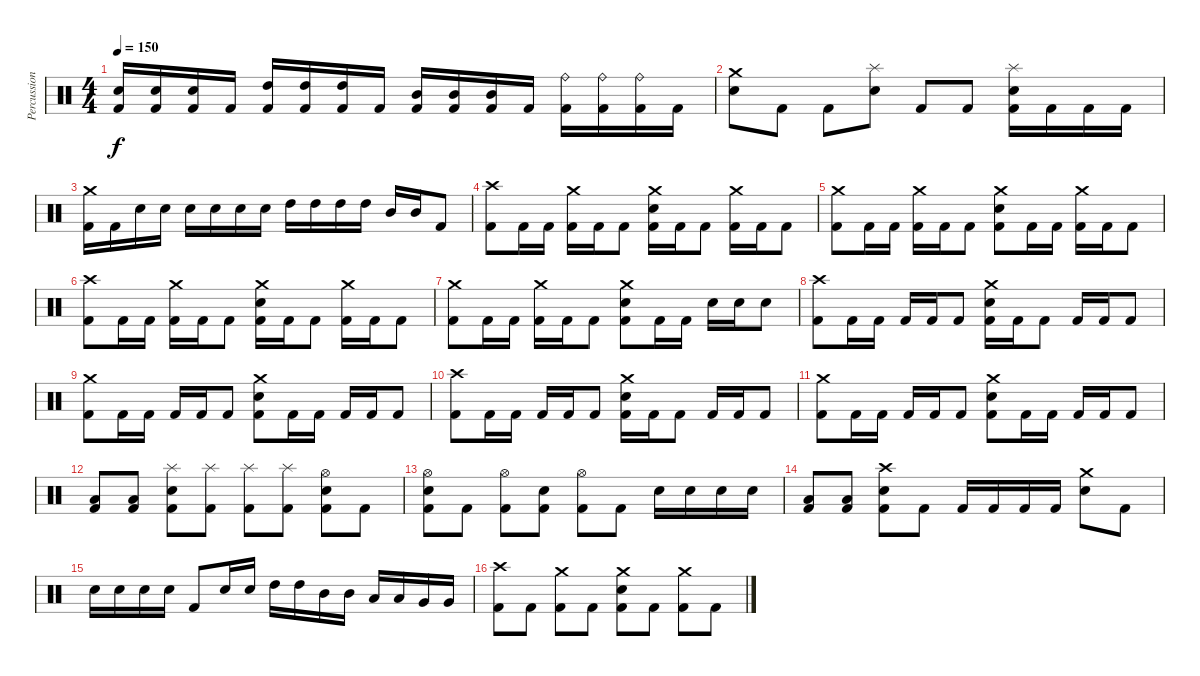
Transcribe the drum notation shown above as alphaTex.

\track ("Percussion" "Percussion") {instrument percussion}
\staff {score}
\articulation defaults
\ts (4 4)
\tempo 150
\clef neutral
\ks c
("Electric Snare (hit)" "Kick (hit) 2").16{dy f} ("Electric Snare (hit)" "Kick (hit) 2").16 ("Electric Snare (hit)" "Kick (hit) 2").16 "Kick (hit) 2".16 ("High Tom (hit)" "Kick (hit) 2").16 ("High Tom (hit)" "Kick (hit) 2").16 ("High Tom (hit)" "Kick (hit) 2").16 "Kick (hit) 2".16 ("Mid Tom (hit)" "Kick (hit) 2").16 ("Mid Tom (hit)" "Kick (hit) 2").16 ("Mid Tom (hit)" "Kick (hit) 2").16 "Kick (hit) 2".16 ("Ride (bell)" "Kick (hit) 2").16 ("Ride (bell)" "Kick (hit) 2").16 ("Ride (bell)" "Kick (hit) 2").16 "Kick (hit) 2".16 |
("Crash medium (hit)" "Electric Snare (hit)").8 "Kick (hit) 2".8 "Kick (hit) 2".8 ("Splash (hit)" "Electric Snare (hit)").8 "Kick (hit) 2".8 "Kick (hit) 2".8 ("Splash (hit)" "Electric Snare (hit)" "Kick (hit) 2").16 "Kick (hit) 2".16 "Kick (hit) 2".16 "Kick (hit) 2".16 |
("Crash medium (hit)" "Kick (hit) 2").16 "Kick (hit) 2".16 "Electric Snare (hit)".16 "Electric Snare (hit)".16 "Electric Snare (hit)".16 "Electric Snare (hit)".16 "Electric Snare (hit)".16 "Electric Snare (hit)".16 "High Tom (hit)".16 "High Tom (hit)".16 "High Tom (hit)".16 "High Tom (hit)".16 "Mid Tom (hit)".16 "Mid Tom (hit)".16 "Kick (hit) 2".8 |
("Crash high (hit)" "Kick (hit) 2").8 "Kick (hit) 2".16 "Kick (hit) 2".16 ("Crash medium (hit)" "Kick (hit) 2").16 "Kick (hit) 2".16 "Kick (hit) 2".8 ("Crash medium (hit)" "Electric Snare (hit)" "Kick (hit) 2").16 "Kick (hit) 2".16 "Kick (hit) 2".8 ("Crash medium (hit)" "Kick (hit) 2").16 "Kick (hit) 2".16 "Kick (hit) 2".8 |
("Crash medium (hit)" "Kick (hit) 2").8 "Kick (hit) 2".16 "Kick (hit) 2".16 ("Crash medium (hit)" "Kick (hit) 2").16 "Kick (hit) 2".16 "Kick (hit) 2".8 ("Crash medium (hit)" "Electric Snare (hit)" "Kick (hit) 2").8 "Kick (hit) 2".16 "Kick (hit) 2".16 ("Crash medium (hit)" "Kick (hit) 2").16 "Kick (hit) 2".16 "Kick (hit) 2".8 |
("Crash high (hit)" "Kick (hit) 2").8 "Kick (hit) 2".16 "Kick (hit) 2".16 ("Crash medium (hit)" "Kick (hit) 2").16 "Kick (hit) 2".16 "Kick (hit) 2".8 ("Crash medium (hit)" "Electric Snare (hit)" "Kick (hit) 2").16 "Kick (hit) 2".16 "Kick (hit) 2".8 ("Crash medium (hit)" "Kick (hit) 2").16 "Kick (hit) 2".16 "Kick (hit) 2".8 |
("Crash medium (hit)" "Kick (hit) 2").8 "Kick (hit) 2".16 "Kick (hit) 2".16 ("Crash medium (hit)" "Kick (hit) 2").16 "Kick (hit) 2".16 "Kick (hit) 2".8 ("Crash medium (hit)" "Electric Snare (hit)" "Kick (hit) 2").8 "Kick (hit) 2".16 "Kick (hit) 2".16 "Electric Snare (hit)".16 "Electric Snare (hit)".16 "Electric Snare (hit)".8 |
("Crash high (hit)" "Kick (hit) 2").8 "Kick (hit) 2".16 "Kick (hit) 2".16 "Kick (hit) 2".16 "Kick (hit) 2".16 "Kick (hit) 2".8 ("Crash medium (hit)" "Electric Snare (hit)" "Kick (hit) 2").16 "Kick (hit) 2".16 "Kick (hit) 2".8 "Kick (hit) 2".16 "Kick (hit) 2".16 "Kick (hit) 2".8 |
("Crash medium (hit)" "Kick (hit) 2").8 "Kick (hit) 2".16 "Kick (hit) 2".16 "Kick (hit) 2".16 "Kick (hit) 2".16 "Kick (hit) 2".8 ("Crash medium (hit)" "Electric Snare (hit)" "Kick (hit) 2").8 "Kick (hit) 2".16 "Kick (hit) 2".16 "Kick (hit) 2".16 "Kick (hit) 2".16 "Kick (hit) 2".8 |
("Crash high (hit)" "Kick (hit) 2").8 "Kick (hit) 2".16 "Kick (hit) 2".16 "Kick (hit) 2".16 "Kick (hit) 2".16 "Kick (hit) 2".8 ("Crash medium (hit)" "Electric Snare (hit)" "Kick (hit) 2").16 "Kick (hit) 2".16 "Kick (hit) 2".8 "Kick (hit) 2".16 "Kick (hit) 2".16 "Kick (hit) 2".8 |
("Crash medium (hit)" "Kick (hit) 2").8 "Kick (hit) 2".16 "Kick (hit) 2".16 "Kick (hit) 2".16 "Kick (hit) 2".16 "Kick (hit) 2".8 ("Crash medium (hit)" "Electric Snare (hit)" "Kick (hit) 2").8 "Kick (hit) 2".16 "Kick (hit) 2".16 "Kick (hit) 2".16 "Kick (hit) 2".16 "Kick (hit) 2".8 |
("Low Floor Tom (hit)" "Kick (hit) 2").8 ("Low Floor Tom (hit)" "Kick (hit) 2").8 ("Splash (hit)" "Electric Snare (hit)" "Kick (hit) 2").8 ("Splash (hit)" "Kick (hit) 2").8 ("Splash (hit)" "Kick (hit) 2").8 ("Splash (hit)" "Kick (hit) 2").8 ("Hi-Hat (open)" "Electric Snare (hit)" "Kick (hit) 2").8 "Kick (hit) 2".8 |
("Hi-Hat (open)" "Electric Snare (hit)" "Kick (hit) 2").8 "Kick (hit) 2".8 ("Hi-Hat (open)" "Kick (hit) 2").8 ("Electric Snare (hit)" "Kick (hit) 2").8 ("Hi-Hat (open)" "Kick (hit) 2").8 "Kick (hit) 2".8 "Electric Snare (hit)".16 "Electric Snare (hit)".16 "Electric Snare (hit)".16 "Electric Snare (hit)".16 |
("Low Tom (hit)" "Kick (hit) 2").8 ("Low Tom (hit)" "Kick (hit) 2").8 ("Crash high (hit)" "Electric Snare (hit)" "Kick (hit) 2").8 "Kick (hit) 2".8 "Kick (hit) 2".16 "Kick (hit) 2".16 "Kick (hit) 2".16 "Kick (hit) 2".16 ("Crash medium (hit)" "Electric Snare (hit)").8 "Kick (hit) 2".8 |
"Electric Snare (hit)".16 "Electric Snare (hit)".16 "Electric Snare (hit)".16 "Electric Snare (hit)".16 "Kick (hit) 2".8 "Electric Snare (hit)".16 "Electric Snare (hit)".16 "High Tom (hit)".16 "High Tom (hit)".16 "Mid Tom (hit)".16 "Mid Tom (hit)".16 "Low Tom (hit)".16 "Low Tom (hit)".16 "Very Low Tom (hit)".16 "Very Low Tom (hit)".16 |
("Crash high (hit)" "Kick (hit) 2").8 "Kick (hit) 2".8 ("Crash medium (hit)" "Kick (hit) 2").8 "Kick (hit) 2".8 ("Crash medium (hit)" "Electric Snare (hit)" "Kick (hit) 2").8 "Kick (hit) 2".8 ("Crash medium (hit)" "Kick (hit) 2").8 "Kick (hit) 2".8
